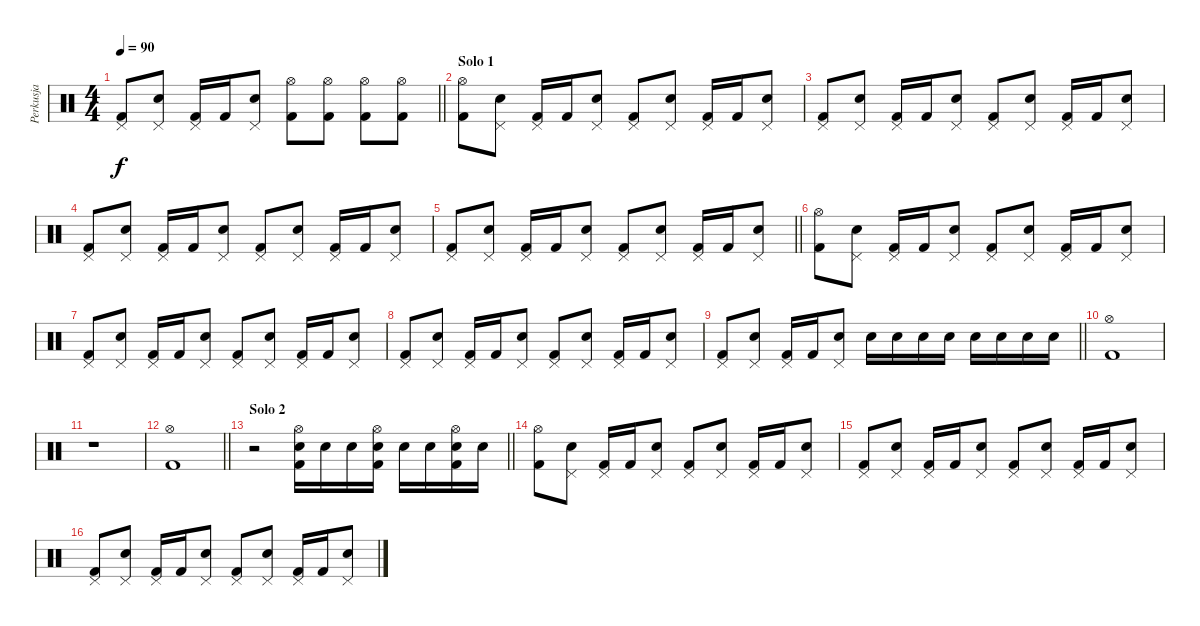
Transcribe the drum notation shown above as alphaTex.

\track ("Perkusja" "Perkusja") {instrument percussion}
\staff {score}
\articulation defaults
\ts (4 4)
\tempo 90
\clef neutral
\barLineRight lightlight
\ks c
("Pedal Hi-Hat (hit)" "Kick (hit) 2").8{dy f} ("Pedal Hi-Hat (hit)" "Electric Snare (hit)").8 ("Pedal Hi-Hat (hit)" "Kick (hit) 2").16 "Kick (hit) 2".16 ("Pedal Hi-Hat (hit)" "Electric Snare (hit)").8 ("Hi-Hat (open)" "Kick (hit) 2").8 ("Hi-Hat (open)" "Kick (hit) 2").8 ("Hi-Hat (open)" "Kick (hit) 2").8 ("Hi-Hat (open)" "Kick (hit) 2").8 |
\section ("" "Solo 1")
("Hi-Hat (open)" "Kick (hit) 2").8 ("Pedal Hi-Hat (hit)" "Electric Snare (hit)").8 ("Pedal Hi-Hat (hit)" "Kick (hit) 2").16 "Kick (hit) 2".16 ("Pedal Hi-Hat (hit)" "Electric Snare (hit)").8 ("Pedal Hi-Hat (hit)" "Kick (hit) 2").8 ("Pedal Hi-Hat (hit)" "Electric Snare (hit)").8 ("Pedal Hi-Hat (hit)" "Kick (hit) 2").16 "Kick (hit) 2".16 ("Pedal Hi-Hat (hit)" "Electric Snare (hit)").8 |
("Pedal Hi-Hat (hit)" "Kick (hit) 2").8 ("Pedal Hi-Hat (hit)" "Electric Snare (hit)").8 ("Pedal Hi-Hat (hit)" "Kick (hit) 2").16 "Kick (hit) 2".16 ("Pedal Hi-Hat (hit)" "Electric Snare (hit)").8 ("Pedal Hi-Hat (hit)" "Kick (hit) 2").8 ("Pedal Hi-Hat (hit)" "Electric Snare (hit)").8 ("Pedal Hi-Hat (hit)" "Kick (hit) 2").16 "Kick (hit) 2".16 ("Pedal Hi-Hat (hit)" "Electric Snare (hit)").8 |
("Pedal Hi-Hat (hit)" "Kick (hit) 2").8 ("Pedal Hi-Hat (hit)" "Electric Snare (hit)").8 ("Pedal Hi-Hat (hit)" "Kick (hit) 2").16 "Kick (hit) 2".16 ("Pedal Hi-Hat (hit)" "Electric Snare (hit)").8 ("Pedal Hi-Hat (hit)" "Kick (hit) 2").8 ("Pedal Hi-Hat (hit)" "Electric Snare (hit)").8 ("Pedal Hi-Hat (hit)" "Kick (hit) 2").16 "Kick (hit) 2".16 ("Pedal Hi-Hat (hit)" "Electric Snare (hit)").8 |
\barLineRight lightlight
("Pedal Hi-Hat (hit)" "Kick (hit) 2").8 ("Pedal Hi-Hat (hit)" "Electric Snare (hit)").8 ("Pedal Hi-Hat (hit)" "Kick (hit) 2").16 "Kick (hit) 2".16 ("Pedal Hi-Hat (hit)" "Electric Snare (hit)").8 ("Pedal Hi-Hat (hit)" "Kick (hit) 2").8 ("Pedal Hi-Hat (hit)" "Electric Snare (hit)").8 ("Pedal Hi-Hat (hit)" "Kick (hit) 2").16 "Kick (hit) 2".16 ("Pedal Hi-Hat (hit)" "Electric Snare (hit)").8 |
("Hi-Hat (open)" "Kick (hit) 2").8 ("Pedal Hi-Hat (hit)" "Electric Snare (hit)").8 ("Pedal Hi-Hat (hit)" "Kick (hit) 2").16 "Kick (hit) 2".16 ("Pedal Hi-Hat (hit)" "Electric Snare (hit)").8 ("Pedal Hi-Hat (hit)" "Kick (hit) 2").8 ("Pedal Hi-Hat (hit)" "Electric Snare (hit)").8 ("Pedal Hi-Hat (hit)" "Kick (hit) 2").16 "Kick (hit) 2".16 ("Pedal Hi-Hat (hit)" "Electric Snare (hit)").8 |
("Pedal Hi-Hat (hit)" "Kick (hit) 2").8 ("Pedal Hi-Hat (hit)" "Electric Snare (hit)").8 ("Pedal Hi-Hat (hit)" "Kick (hit) 2").16 "Kick (hit) 2".16 ("Pedal Hi-Hat (hit)" "Electric Snare (hit)").8 ("Pedal Hi-Hat (hit)" "Kick (hit) 2").8 ("Pedal Hi-Hat (hit)" "Electric Snare (hit)").8 ("Pedal Hi-Hat (hit)" "Kick (hit) 2").16 "Kick (hit) 2".16 ("Pedal Hi-Hat (hit)" "Electric Snare (hit)").8 |
("Pedal Hi-Hat (hit)" "Kick (hit) 2").8 ("Pedal Hi-Hat (hit)" "Electric Snare (hit)").8 ("Pedal Hi-Hat (hit)" "Kick (hit) 2").16 "Kick (hit) 2".16 ("Pedal Hi-Hat (hit)" "Electric Snare (hit)").8 ("Pedal Hi-Hat (hit)" "Kick (hit) 2").8 ("Pedal Hi-Hat (hit)" "Electric Snare (hit)").8 ("Pedal Hi-Hat (hit)" "Kick (hit) 2").16 "Kick (hit) 2".16 ("Pedal Hi-Hat (hit)" "Electric Snare (hit)").8 |
\barLineRight lightlight
("Pedal Hi-Hat (hit)" "Kick (hit) 2").8 ("Pedal Hi-Hat (hit)" "Electric Snare (hit)").8 ("Pedal Hi-Hat (hit)" "Kick (hit) 2").16 "Kick (hit) 2".16 ("Pedal Hi-Hat (hit)" "Electric Snare (hit)").8 "Electric Snare (hit)".16 "Electric Snare (hit)".16 "Electric Snare (hit)".16 "Electric Snare (hit)".16 "Electric Snare (hit)".16 "Electric Snare (hit)".16 "Electric Snare (hit)".16 "Electric Snare (hit)".16 |
("Hi-Hat (open)" "Kick (hit) 2").1 |
r.1 |
\barLineRight lightlight
("Hi-Hat (open)" "Kick (hit) 2").1 |
\section ("" "Solo 2")
\barLineRight lightlight
r.2 ("Hi-Hat (open)" "Electric Snare (hit)" "Kick (hit) 2").16 "Electric Snare (hit)".16 "Electric Snare (hit)".16 ("Hi-Hat (open)" "Electric Snare (hit)" "Kick (hit) 2").16 "Electric Snare (hit)".16 "Electric Snare (hit)".16 ("Hi-Hat (open)" "Electric Snare (hit)" "Kick (hit) 2").16 "Electric Snare (hit)".16 |
("Hi-Hat (open)" "Kick (hit) 2").8 ("Pedal Hi-Hat (hit)" "Electric Snare (hit)").8 ("Pedal Hi-Hat (hit)" "Kick (hit) 2").16 "Kick (hit) 2".16 ("Pedal Hi-Hat (hit)" "Electric Snare (hit)").8 ("Pedal Hi-Hat (hit)" "Kick (hit) 2").8 ("Pedal Hi-Hat (hit)" "Electric Snare (hit)").8 ("Pedal Hi-Hat (hit)" "Kick (hit) 2").16 "Kick (hit) 2".16 ("Pedal Hi-Hat (hit)" "Electric Snare (hit)").8 |
("Pedal Hi-Hat (hit)" "Kick (hit) 2").8 ("Pedal Hi-Hat (hit)" "Electric Snare (hit)").8 ("Pedal Hi-Hat (hit)" "Kick (hit) 2").16 "Kick (hit) 2".16 ("Pedal Hi-Hat (hit)" "Electric Snare (hit)").8 ("Pedal Hi-Hat (hit)" "Kick (hit) 2").8 ("Pedal Hi-Hat (hit)" "Electric Snare (hit)").8 ("Pedal Hi-Hat (hit)" "Kick (hit) 2").16 "Kick (hit) 2".16 ("Pedal Hi-Hat (hit)" "Electric Snare (hit)").8 |
("Pedal Hi-Hat (hit)" "Kick (hit) 2").8 ("Pedal Hi-Hat (hit)" "Electric Snare (hit)").8 ("Pedal Hi-Hat (hit)" "Kick (hit) 2").16 "Kick (hit) 2".16 ("Pedal Hi-Hat (hit)" "Electric Snare (hit)").8 ("Pedal Hi-Hat (hit)" "Kick (hit) 2").8 ("Pedal Hi-Hat (hit)" "Electric Snare (hit)").8 ("Pedal Hi-Hat (hit)" "Kick (hit) 2").16 "Kick (hit) 2".16 ("Pedal Hi-Hat (hit)" "Electric Snare (hit)").8
